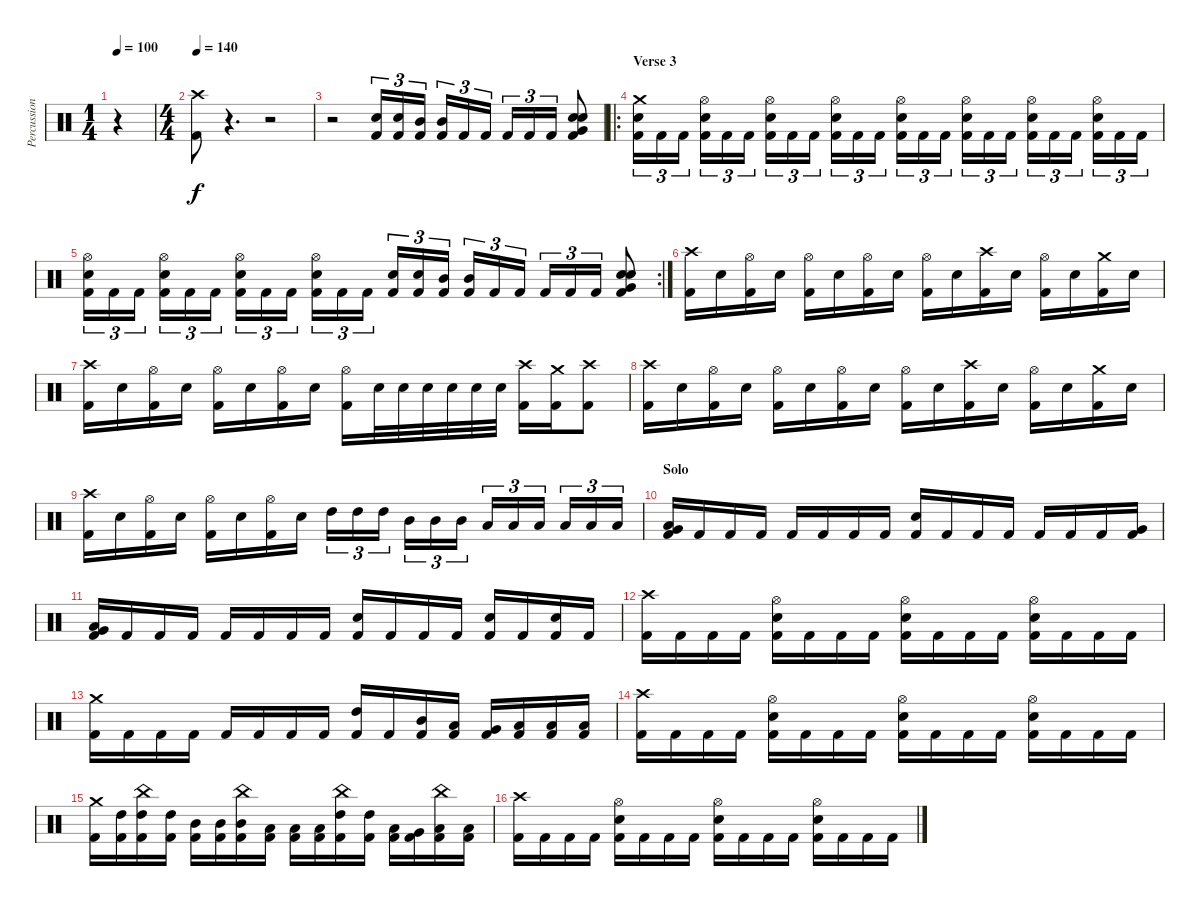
\track ("Percussioni" "Percussion") {instrument percussion}
\staff {score}
\articulation defaults
\ts (1 4)
\tempo 100
\clef neutral
\ks c
r.4{dy ppp} |
\ts (4 4)
\tempo 140
("Crash high (hit)" "Kick (hit) 2").8{dy f} r.4{d} r.2 |
r.2 ("Electric Snare (hit)" "Kick (hit) 2").16{tu (3 2)} ("Electric Snare (hit)" "Kick (hit) 2").16{tu (3 2)} ("Mid Tom (hit)" "Kick (hit) 2").16{tu (3 2)} ("Mid Tom (hit)" "Kick (hit) 2").16{tu (3 2)} "Kick (hit) 2".16{tu (3 2)} "Kick (hit) 2".16{tu (3 2)} "Kick (hit) 2".16{tu (3 2)} "Kick (hit) 2".16{tu (3 2)} "Kick (hit) 2".16{tu (3 2)} ("Electric Snare (hit)" "Electric Snare (hit)" "Very Low Tom (hit)" "Kick (hit) 2").8 |
\ro
\section ("" "Verse 3 ")
("Crash medium (hit)" "Electric Snare (hit)" "Kick (hit) 2").16{tu (3 2)} "Kick (hit) 2".16{tu (3 2)} "Kick (hit) 2".16{tu (3 2)} ("Hi-Hat (open)" "Electric Snare (hit)" "Kick (hit) 2").16{tu (3 2)} "Kick (hit) 2".16{tu (3 2)} "Kick (hit) 2".16{tu (3 2)} ("Hi-Hat (open)" "Electric Snare (hit)" "Kick (hit) 2").16{tu (3 2)} "Kick (hit) 2".16{tu (3 2)} "Kick (hit) 2".16{tu (3 2)} ("Hi-Hat (open)" "Electric Snare (hit)" "Kick (hit) 2").16{tu (3 2)} "Kick (hit) 2".16{tu (3 2)} "Kick (hit) 2".16{tu (3 2)} ("Hi-Hat (open)" "Electric Snare (hit)" "Kick (hit) 2").16{tu (3 2)} "Kick (hit) 2".16{tu (3 2)} "Kick (hit) 2".16{tu (3 2)} ("Hi-Hat (open)" "Electric Snare (hit)" "Kick (hit) 2").16{tu (3 2)} "Kick (hit) 2".16{tu (3 2)} "Kick (hit) 2".16{tu (3 2)} ("Hi-Hat (open)" "Electric Snare (hit)" "Kick (hit) 2").16{tu (3 2)} "Kick (hit) 2".16{tu (3 2)} "Kick (hit) 2".16{tu (3 2)} ("Hi-Hat (open)" "Electric Snare (hit)" "Kick (hit) 2").16{tu (3 2)} "Kick (hit) 2".16{tu (3 2)} "Kick (hit) 2".16{tu (3 2)} |
\rc 2
("Hi-Hat (open)" "Electric Snare (hit)" "Kick (hit) 2").16{tu (3 2)} "Kick (hit) 2".16{tu (3 2)} "Kick (hit) 2".16{tu (3 2)} ("Hi-Hat (open)" "Electric Snare (hit)" "Kick (hit) 2").16{tu (3 2)} "Kick (hit) 2".16{tu (3 2)} "Kick (hit) 2".16{tu (3 2)} ("Hi-Hat (open)" "Electric Snare (hit)" "Kick (hit) 2").16{tu (3 2)} "Kick (hit) 2".16{tu (3 2)} "Kick (hit) 2".16{tu (3 2)} ("Hi-Hat (open)" "Electric Snare (hit)" "Kick (hit) 2").16{tu (3 2)} "Kick (hit) 2".16{tu (3 2)} "Kick (hit) 2".16{tu (3 2)} ("Electric Snare (hit)" "Kick (hit) 2").16{tu (3 2)} ("Electric Snare (hit)" "Kick (hit) 2").16{tu (3 2)} ("Mid Tom (hit)" "Kick (hit) 2").16{tu (3 2)} ("Mid Tom (hit)" "Kick (hit) 2").16{tu (3 2)} "Kick (hit) 2".16{tu (3 2)} "Kick (hit) 2".16{tu (3 2)} "Kick (hit) 2".16{tu (3 2)} "Kick (hit) 2".16{tu (3 2)} "Kick (hit) 2".16{tu (3 2)} ("Electric Snare (hit)" "Electric Snare (hit)" "Very Low Tom (hit)" "Kick (hit) 2").8 |
("Crash high (hit)" "Kick (hit) 2").16 "Electric Snare (hit)".16 ("Hi-Hat (open)" "Kick (hit) 2").16 "Electric Snare (hit)".16 ("Hi-Hat (open)" "Kick (hit) 2").16 "Electric Snare (hit)".16 ("Hi-Hat (open)" "Kick (hit) 2").16 "Electric Snare (hit)".16 ("Hi-Hat (open)" "Kick (hit) 2").16 "Electric Snare (hit)".16 ("Crash high (hit)" "Kick (hit) 2").16 "Electric Snare (hit)".16 ("Hi-Hat (open)" "Kick (hit) 2").16 "Electric Snare (hit)".16 ("Crash medium (hit)" "Kick (hit) 2").16 "Electric Snare (hit)".16 |
("Crash high (hit)" "Kick (hit) 2").16 "Electric Snare (hit)".16 ("Hi-Hat (open)" "Kick (hit) 2").16 "Electric Snare (hit)".16 ("Hi-Hat (open)" "Kick (hit) 2").16 "Electric Snare (hit)".16 ("Hi-Hat (open)" "Kick (hit) 2").16 "Electric Snare (hit)".16 ("Hi-Hat (open)" "Kick (hit) 2").16 "Electric Snare (hit)".32 "Electric Snare (hit)".32 "Electric Snare (hit)".32 "Electric Snare (hit)".32 "Electric Snare (hit)".32 "Electric Snare (hit)".32 ("Crash high (hit)" "Kick (hit) 2").16 ("Crash medium (hit)" "Kick (hit) 2").16 ("Crash high (hit)" "Kick (hit) 2").8 |
("Crash high (hit)" "Kick (hit) 2").16 "Electric Snare (hit)".16 ("Hi-Hat (open)" "Kick (hit) 2").16 "Electric Snare (hit)".16 ("Hi-Hat (open)" "Kick (hit) 2").16 "Electric Snare (hit)".16 ("Hi-Hat (open)" "Kick (hit) 2").16 "Electric Snare (hit)".16 ("Hi-Hat (open)" "Kick (hit) 2").16 "Electric Snare (hit)".16 ("Crash high (hit)" "Kick (hit) 2").16 "Electric Snare (hit)".16 ("Hi-Hat (open)" "Kick (hit) 2").16 "Electric Snare (hit)".16 ("Crash medium (hit)" "Kick (hit) 2").16 "Electric Snare (hit)".16 |
("Crash high (hit)" "Kick (hit) 2").16 "Electric Snare (hit)".16 ("Hi-Hat (open)" "Kick (hit) 2").16 "Electric Snare (hit)".16 ("Hi-Hat (open)" "Kick (hit) 2").16 "Electric Snare (hit)".16 ("Hi-Hat (open)" "Kick (hit) 2").16 "Electric Snare (hit)".16 "High Tom (hit)".16{tu (3 2)} "High Tom (hit)".16{tu (3 2)} "High Tom (hit)".16{tu (3 2)} "Mid Tom (hit)".16{tu (3 2)} "Mid Tom (hit)".16{tu (3 2)} "Mid Tom (hit)".16{tu (3 2)} "Low Tom (hit)".16{tu (3 2)} "Low Tom (hit)".16{tu (3 2)} "Low Tom (hit)".16{tu (3 2)} "Low Floor Tom (hit)".16{tu (3 2)} "Low Floor Tom (hit)".16{tu (3 2)} "Low Floor Tom (hit)".16{tu (3 2)} |
\section ("" "Solo")
("Very Low Tom (hit)" "Low Floor Tom (hit)" "Kick (hit) 2").16 "Kick (hit) 2".16 "Kick (hit) 2".16 "Kick (hit) 2".16 "Kick (hit) 2".16 "Kick (hit) 2".16 "Kick (hit) 2".16 "Kick (hit) 2".16 ("Electric Snare (hit)" "Kick (hit) 2").16 "Kick (hit) 2".16 "Kick (hit) 2".16 "Kick (hit) 2".16 "Kick (hit) 2".16 "Kick (hit) 2".16 "Kick (hit) 2".16 ("Very Low Tom (hit)" "Kick (hit) 2").16 |
("Very Low Tom (hit)" "Low Floor Tom (hit)" "Kick (hit) 2").16 "Kick (hit) 2".16 "Kick (hit) 2".16 "Kick (hit) 2".16 "Kick (hit) 2".16 "Kick (hit) 2".16 "Kick (hit) 2".16 "Kick (hit) 2".16 ("Electric Snare (hit)" "Kick (hit) 2").16 "Kick (hit) 2".16 "Kick (hit) 2".16 "Kick (hit) 2".16 ("Electric Snare (hit)" "Kick (hit) 2").16 "Kick (hit) 2".16 ("Electric Snare (hit)" "Kick (hit) 2").16 "Kick (hit) 2".16 |
("Crash high (hit)" "Kick (hit) 2").16 "Kick (hit) 2".16 "Kick (hit) 2".16 "Kick (hit) 2".16 ("Hi-Hat (open)" "Electric Snare (hit)" "Kick (hit) 2").16 "Kick (hit) 2".16 "Kick (hit) 2".16 "Kick (hit) 2".16 ("Hi-Hat (open)" "Electric Snare (hit)" "Kick (hit) 2").16 "Kick (hit) 2".16 "Kick (hit) 2".16 "Kick (hit) 2".16 ("Hi-Hat (open)" "Electric Snare (hit)" "Kick (hit) 2").16 "Kick (hit) 2".16 "Kick (hit) 2".16 "Kick (hit) 2".16 |
("Crash medium (hit)" "Kick (hit) 2").16 "Kick (hit) 2".16 "Kick (hit) 2".16 "Kick (hit) 2".16 "Kick (hit) 2".16 "Kick (hit) 2".16 "Kick (hit) 2".16 "Kick (hit) 2".16 ("High Tom (hit)" "Kick (hit) 2").16 "Kick (hit) 2".16 ("Mid Tom (hit)" "Kick (hit) 2").16 ("Low Tom (hit)" "Kick (hit) 2").16 ("Very Low Tom (hit)" "Kick (hit) 2").16 ("Low Floor Tom (hit)" "Kick (hit) 2").16 ("Low Floor Tom (hit)" "Kick (hit) 2").16 ("Low Floor Tom (hit)" "Kick (hit) 2").16 |
("Crash high (hit)" "Kick (hit) 2").16 "Kick (hit) 2".16 "Kick (hit) 2".16 "Kick (hit) 2".16 ("Hi-Hat (open)" "Electric Snare (hit)" "Kick (hit) 2").16 "Kick (hit) 2".16 "Kick (hit) 2".16 "Kick (hit) 2".16 ("Hi-Hat (open)" "Electric Snare (hit)" "Kick (hit) 2").16 "Kick (hit) 2".16 "Kick (hit) 2".16 "Kick (hit) 2".16 ("Hi-Hat (open)" "Electric Snare (hit)" "Kick (hit) 2").16 "Kick (hit) 2".16 "Kick (hit) 2".16 "Kick (hit) 2".16 |
("Crash medium (hit)" "Kick (hit) 2").16 ("High Tom (hit)" "Kick (hit) 2").16 ("China (hit)" "High Tom (hit)" "Kick (hit) 2").16 ("High Tom (hit)" "Kick (hit) 2").16 ("Mid Tom (hit)" "Kick (hit) 2").16 ("Mid Tom (hit)" "Kick (hit) 2").16 ("China (hit)" "Mid Tom (hit)" "Kick (hit) 2").16 ("Low Tom (hit)" "Kick (hit) 2").16 ("Low Tom (hit)" "Kick (hit) 2").16 ("Low Tom (hit)" "Kick (hit) 2").16 ("China (hit)" "High Tom (hit)" "Kick (hit) 2").16 ("High Tom (hit)" "Kick (hit) 2").16 ("Low Tom (hit)" "Kick (hit) 2").16 ("Very Low Tom (hit)" "Kick (hit) 2").16 ("China (hit)" "Low Floor Tom (hit)" "Kick (hit) 2").16 ("Low Floor Tom (hit)" "Kick (hit) 2").16 |
("Crash high (hit)" "Kick (hit) 2").16 "Kick (hit) 2".16 "Kick (hit) 2".16 "Kick (hit) 2".16 ("Hi-Hat (open)" "Electric Snare (hit)" "Kick (hit) 2").16 "Kick (hit) 2".16 "Kick (hit) 2".16 "Kick (hit) 2".16 ("Hi-Hat (open)" "Electric Snare (hit)" "Kick (hit) 2").16 "Kick (hit) 2".16 "Kick (hit) 2".16 "Kick (hit) 2".16 ("Hi-Hat (open)" "Electric Snare (hit)" "Kick (hit) 2").16 "Kick (hit) 2".16 "Kick (hit) 2".16 "Kick (hit) 2".16
